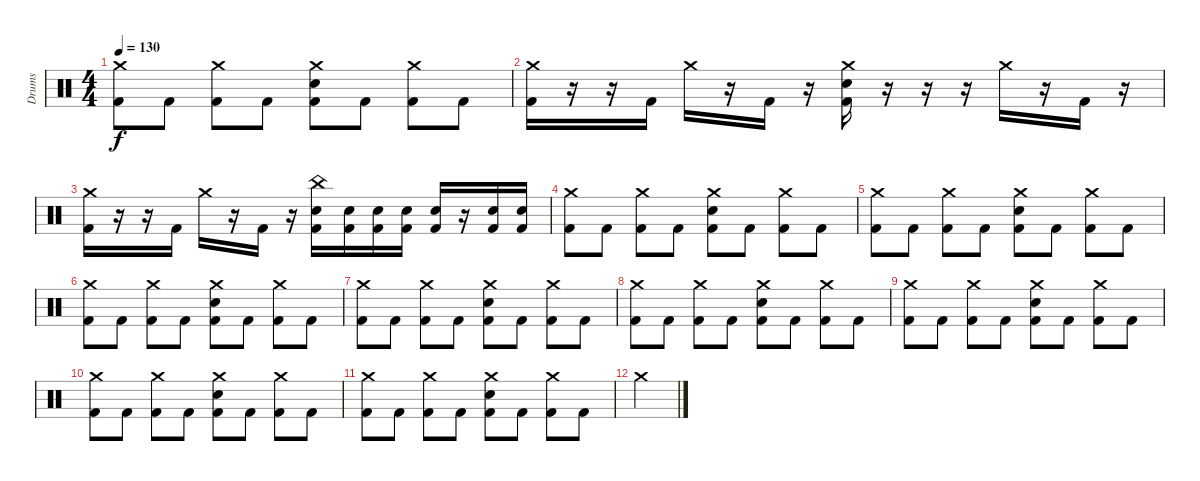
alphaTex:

\track ("Drums" "Drums") {instrument percussion}
\staff {score}
\articulation defaults
\ts (4 4)
\tempo 130
\clef neutral
\ks c
("Crash medium (hit)" "Kick (hit) 2").8{dy f} "Kick (hit) 2".8 ("Crash medium (hit)" "Kick (hit) 2").8 "Kick (hit) 2".8 ("Crash medium (hit)" "Electric Snare (hit)" "Kick (hit) 2").8 "Kick (hit) 2".8 ("Crash medium (hit)" "Kick (hit) 2").8 "Kick (hit) 2".8 |
("Crash medium (hit)" "Kick (hit) 2").16 r.16 r.16 "Kick (hit) 2".16 "Crash medium (hit)".16 r.16 "Kick (hit) 2".16 r.16 ("Crash medium (hit)" "Electric Snare (hit)" "Kick (hit) 2").16 r.16 r.16 r.16 "Crash medium (hit)".16 r.16 "Kick (hit) 2".16 r.16 |
("Crash medium (hit)" "Kick (hit) 2").16 r.16 r.16 "Kick (hit) 2".16 "Crash medium (hit)".16 r.16 "Kick (hit) 2".16 r.16 ("China (hit)" "Electric Snare (hit)" "Kick (hit) 2").16 ("Electric Snare (hit)" "Kick (hit) 2").16 ("Electric Snare (hit)" "Kick (hit) 2").16 ("Electric Snare (hit)" "Kick (hit) 2").16 ("Electric Snare (hit)" "Kick (hit) 2").16 r.16 ("Electric Snare (hit)" "Kick (hit) 2").16 ("Electric Snare (hit)" "Kick (hit) 2").16 |
("Crash medium (hit)" "Kick (hit) 2").8 "Kick (hit) 2".8 ("Crash medium (hit)" "Kick (hit) 2").8 "Kick (hit) 2".8 ("Crash medium (hit)" "Electric Snare (hit)" "Kick (hit) 2").8 "Kick (hit) 2".8 ("Crash medium (hit)" "Kick (hit) 2").8 "Kick (hit) 2".8 |
("Crash medium (hit)" "Kick (hit) 2").8 "Kick (hit) 2".8 ("Crash medium (hit)" "Kick (hit) 2").8 "Kick (hit) 2".8 ("Crash medium (hit)" "Electric Snare (hit)" "Kick (hit) 2").8 "Kick (hit) 2".8 ("Crash medium (hit)" "Kick (hit) 2").8 "Kick (hit) 2".8 |
("Crash medium (hit)" "Kick (hit) 2").8 "Kick (hit) 2".8 ("Crash medium (hit)" "Kick (hit) 2").8 "Kick (hit) 2".8 ("Crash medium (hit)" "Electric Snare (hit)" "Kick (hit) 2").8 "Kick (hit) 2".8 ("Crash medium (hit)" "Kick (hit) 2").8 "Kick (hit) 2".8 |
("Crash medium (hit)" "Kick (hit) 2").8 "Kick (hit) 2".8 ("Crash medium (hit)" "Kick (hit) 2").8 "Kick (hit) 2".8 ("Crash medium (hit)" "Electric Snare (hit)" "Kick (hit) 2").8 "Kick (hit) 2".8 ("Crash medium (hit)" "Kick (hit) 2").8 "Kick (hit) 2".8 |
("Crash medium (hit)" "Kick (hit) 2").8 "Kick (hit) 2".8 ("Crash medium (hit)" "Kick (hit) 2").8 "Kick (hit) 2".8 ("Crash medium (hit)" "Electric Snare (hit)" "Kick (hit) 2").8 "Kick (hit) 2".8 ("Crash medium (hit)" "Kick (hit) 2").8 "Kick (hit) 2".8 |
("Crash medium (hit)" "Kick (hit) 2").8 "Kick (hit) 2".8 ("Crash medium (hit)" "Kick (hit) 2").8 "Kick (hit) 2".8 ("Crash medium (hit)" "Electric Snare (hit)" "Kick (hit) 2").8 "Kick (hit) 2".8 ("Crash medium (hit)" "Kick (hit) 2").8 "Kick (hit) 2".8 |
("Crash medium (hit)" "Kick (hit) 2").8 "Kick (hit) 2".8 ("Crash medium (hit)" "Kick (hit) 2").8 "Kick (hit) 2".8 ("Crash medium (hit)" "Electric Snare (hit)" "Kick (hit) 2").8 "Kick (hit) 2".8 ("Crash medium (hit)" "Kick (hit) 2").8 "Kick (hit) 2".8 |
("Crash medium (hit)" "Kick (hit) 2").8 "Kick (hit) 2".8 ("Crash medium (hit)" "Kick (hit) 2").8 "Kick (hit) 2".8 ("Crash medium (hit)" "Electric Snare (hit)" "Kick (hit) 2").8 "Kick (hit) 2".8 ("Crash medium (hit)" "Kick (hit) 2").8 "Kick (hit) 2".8 |
"Crash medium (hit)".4
